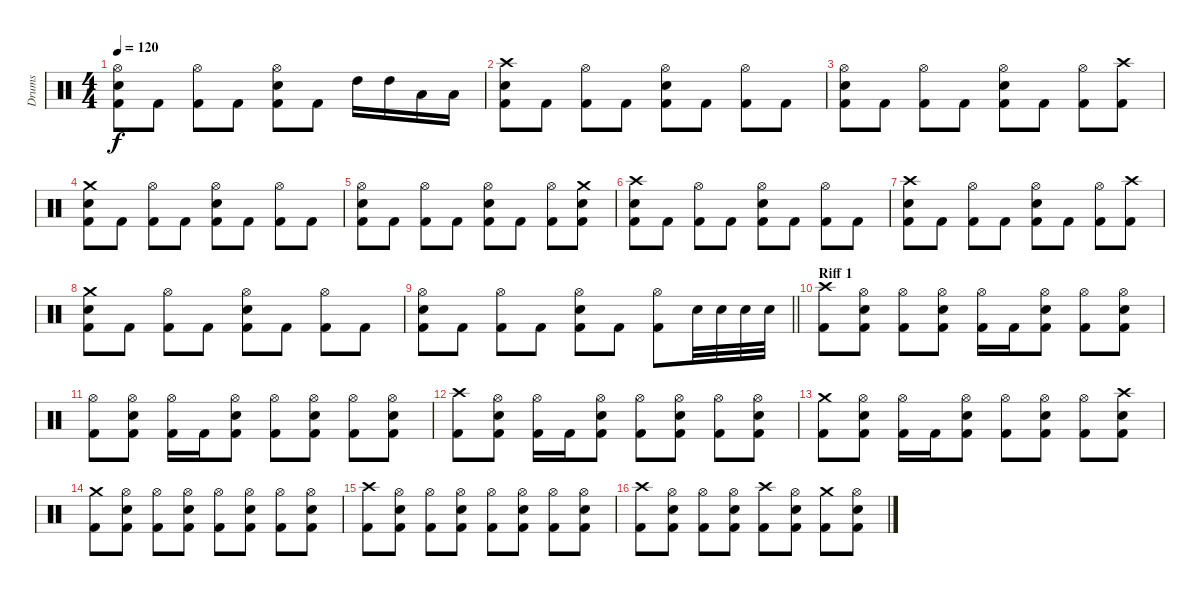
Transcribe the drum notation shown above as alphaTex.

\track ("Drums" "Drums") {instrument percussion}
\staff {score}
\articulation defaults
\ts (4 4)
\tempo 120
\clef neutral
\ks c
("Hi-Hat (open)" "Electric Snare (hit)" "Kick (hit) 2").8{dy f} "Kick (hit) 2".8 ("Hi-Hat (open)" "Kick (hit) 2").8 "Kick (hit) 2".8 ("Hi-Hat (open)" "Electric Snare (hit)" "Kick (hit) 2").8 "Kick (hit) 2".8 "High Tom (hit)".16 "High Tom (hit)".16 "Low Tom (hit)".16 "Low Tom (hit)".16 |
("Crash high (hit)" "Electric Snare (hit)" "Kick (hit) 2").8 "Kick (hit) 2".8 ("Hi-Hat (open)" "Kick (hit) 2").8 "Kick (hit) 2".8 ("Hi-Hat (open)" "Electric Snare (hit)" "Kick (hit) 2").8 "Kick (hit) 2".8 ("Hi-Hat (open)" "Kick (hit) 2").8 "Kick (hit) 2".8 |
("Hi-Hat (open)" "Electric Snare (hit)" "Kick (hit) 2").8 "Kick (hit) 2".8 ("Hi-Hat (open)" "Kick (hit) 2").8 "Kick (hit) 2".8 ("Hi-Hat (open)" "Electric Snare (hit)" "Kick (hit) 2").8 "Kick (hit) 2".8 ("Hi-Hat (open)" "Kick (hit) 2").8 ("Crash high (hit)" "Kick (hit) 2").8 |
("Crash medium (hit)" "Electric Snare (hit)" "Kick (hit) 2").8 "Kick (hit) 2".8 ("Hi-Hat (open)" "Kick (hit) 2").8 "Kick (hit) 2".8 ("Hi-Hat (open)" "Electric Snare (hit)" "Kick (hit) 2").8 "Kick (hit) 2".8 ("Hi-Hat (open)" "Kick (hit) 2").8 "Kick (hit) 2".8 |
("Hi-Hat (open)" "Electric Snare (hit)" "Kick (hit) 2").8 "Kick (hit) 2".8 ("Hi-Hat (open)" "Kick (hit) 2").8 "Kick (hit) 2".8 ("Hi-Hat (open)" "Electric Snare (hit)" "Kick (hit) 2").8 "Kick (hit) 2".8 ("Hi-Hat (open)" "Kick (hit) 2").8 ("Crash medium (hit)" "Electric Snare (hit)" "Kick (hit) 2").8 |
("Crash high (hit)" "Electric Snare (hit)" "Kick (hit) 2").8 "Kick (hit) 2".8 ("Hi-Hat (open)" "Kick (hit) 2").8 "Kick (hit) 2".8 ("Hi-Hat (open)" "Electric Snare (hit)" "Kick (hit) 2").8 "Kick (hit) 2".8 ("Hi-Hat (open)" "Kick (hit) 2").8 "Kick (hit) 2".8 |
("Crash high (hit)" "Electric Snare (hit)" "Kick (hit) 2").8 "Kick (hit) 2".8 ("Hi-Hat (open)" "Kick (hit) 2").8 "Kick (hit) 2".8 ("Hi-Hat (open)" "Electric Snare (hit)" "Kick (hit) 2").8 "Kick (hit) 2".8 ("Hi-Hat (open)" "Kick (hit) 2").8 ("Crash high (hit)" "Kick (hit) 2").8 |
("Crash medium (hit)" "Electric Snare (hit)" "Kick (hit) 2").8 "Kick (hit) 2".8 ("Hi-Hat (open)" "Kick (hit) 2").8 "Kick (hit) 2".8 ("Hi-Hat (open)" "Electric Snare (hit)" "Kick (hit) 2").8 "Kick (hit) 2".8 ("Hi-Hat (open)" "Kick (hit) 2").8 "Kick (hit) 2".8 |
\barLineRight lightlight
("Hi-Hat (open)" "Electric Snare (hit)" "Kick (hit) 2").8 "Kick (hit) 2".8 ("Hi-Hat (open)" "Kick (hit) 2").8 "Kick (hit) 2".8 ("Hi-Hat (open)" "Electric Snare (hit)" "Kick (hit) 2").8 "Kick (hit) 2".8 ("Hi-Hat (open)" "Kick (hit) 2").8 "Electric Snare (hit)".32 "Electric Snare (hit)".32 "Electric Snare (hit)".32 "Electric Snare (hit)".32 |
\section ("" "Riff 1")
("Crash high (hit)" "Kick (hit) 2").8 ("Hi-Hat (open)" "Electric Snare (hit)" "Kick (hit) 2").8 ("Hi-Hat (open)" "Kick (hit) 2").8 ("Hi-Hat (open)" "Electric Snare (hit)" "Kick (hit) 2").8 ("Hi-Hat (open)" "Kick (hit) 2").16 "Kick (hit) 2".16 ("Hi-Hat (open)" "Electric Snare (hit)" "Kick (hit) 2").8 ("Hi-Hat (open)" "Kick (hit) 2").8 ("Hi-Hat (open)" "Electric Snare (hit)" "Kick (hit) 2").8 |
("Hi-Hat (open)" "Kick (hit) 2").8 ("Hi-Hat (open)" "Electric Snare (hit)" "Kick (hit) 2").8 ("Hi-Hat (open)" "Kick (hit) 2").16 "Kick (hit) 2".16 ("Hi-Hat (open)" "Electric Snare (hit)" "Kick (hit) 2").8 ("Hi-Hat (open)" "Kick (hit) 2").8 ("Hi-Hat (open)" "Electric Snare (hit)" "Kick (hit) 2").8 ("Hi-Hat (open)" "Kick (hit) 2").8 ("Hi-Hat (open)" "Electric Snare (hit)" "Kick (hit) 2").8 |
("Crash high (hit)" "Kick (hit) 2").8 ("Hi-Hat (open)" "Electric Snare (hit)" "Kick (hit) 2").8 ("Hi-Hat (open)" "Kick (hit) 2").16 "Kick (hit) 2".16 ("Hi-Hat (open)" "Electric Snare (hit)" "Kick (hit) 2").8 ("Hi-Hat (open)" "Kick (hit) 2").8 ("Hi-Hat (open)" "Electric Snare (hit)" "Kick (hit) 2").8 ("Hi-Hat (open)" "Kick (hit) 2").8 ("Hi-Hat (open)" "Electric Snare (hit)" "Kick (hit) 2").8 |
("Crash medium (hit)" "Kick (hit) 2").8 ("Hi-Hat (open)" "Electric Snare (hit)" "Kick (hit) 2").8 ("Hi-Hat (open)" "Kick (hit) 2").16 "Kick (hit) 2".16 ("Hi-Hat (open)" "Electric Snare (hit)" "Kick (hit) 2").8 ("Hi-Hat (open)" "Kick (hit) 2").8 ("Hi-Hat (open)" "Electric Snare (hit)" "Kick (hit) 2").8 ("Hi-Hat (open)" "Kick (hit) 2").8 ("Crash high (hit)" "Electric Snare (hit)" "Kick (hit) 2").8 |
("Crash medium (hit)" "Kick (hit) 2").8 ("Hi-Hat (open)" "Electric Snare (hit)" "Kick (hit) 2").8 ("Hi-Hat (open)" "Kick (hit) 2").8 ("Hi-Hat (open)" "Electric Snare (hit)" "Kick (hit) 2").8 ("Hi-Hat (open)" "Kick (hit) 2").8 ("Hi-Hat (open)" "Electric Snare (hit)" "Kick (hit) 2").8 ("Hi-Hat (open)" "Kick (hit) 2").8 ("Hi-Hat (open)" "Electric Snare (hit)" "Kick (hit) 2").8 |
("Crash high (hit)" "Kick (hit) 2").8 ("Hi-Hat (open)" "Electric Snare (hit)" "Kick (hit) 2").8 ("Hi-Hat (open)" "Kick (hit) 2").8 ("Hi-Hat (open)" "Electric Snare (hit)" "Kick (hit) 2").8 ("Hi-Hat (open)" "Kick (hit) 2").8 ("Hi-Hat (open)" "Electric Snare (hit)" "Kick (hit) 2").8 ("Hi-Hat (open)" "Kick (hit) 2").8 ("Hi-Hat (open)" "Electric Snare (hit)" "Kick (hit) 2").8 |
("Crash high (hit)" "Kick (hit) 2").8 ("Hi-Hat (open)" "Electric Snare (hit)" "Kick (hit) 2").8 ("Hi-Hat (open)" "Kick (hit) 2").8 ("Hi-Hat (open)" "Electric Snare (hit)" "Kick (hit) 2").8 ("Crash high (hit)" "Kick (hit) 2").8 ("Hi-Hat (open)" "Electric Snare (hit)" "Kick (hit) 2").8 ("Crash medium (hit)" "Kick (hit) 2").8 ("Hi-Hat (open)" "Electric Snare (hit)" "Kick (hit) 2").8
